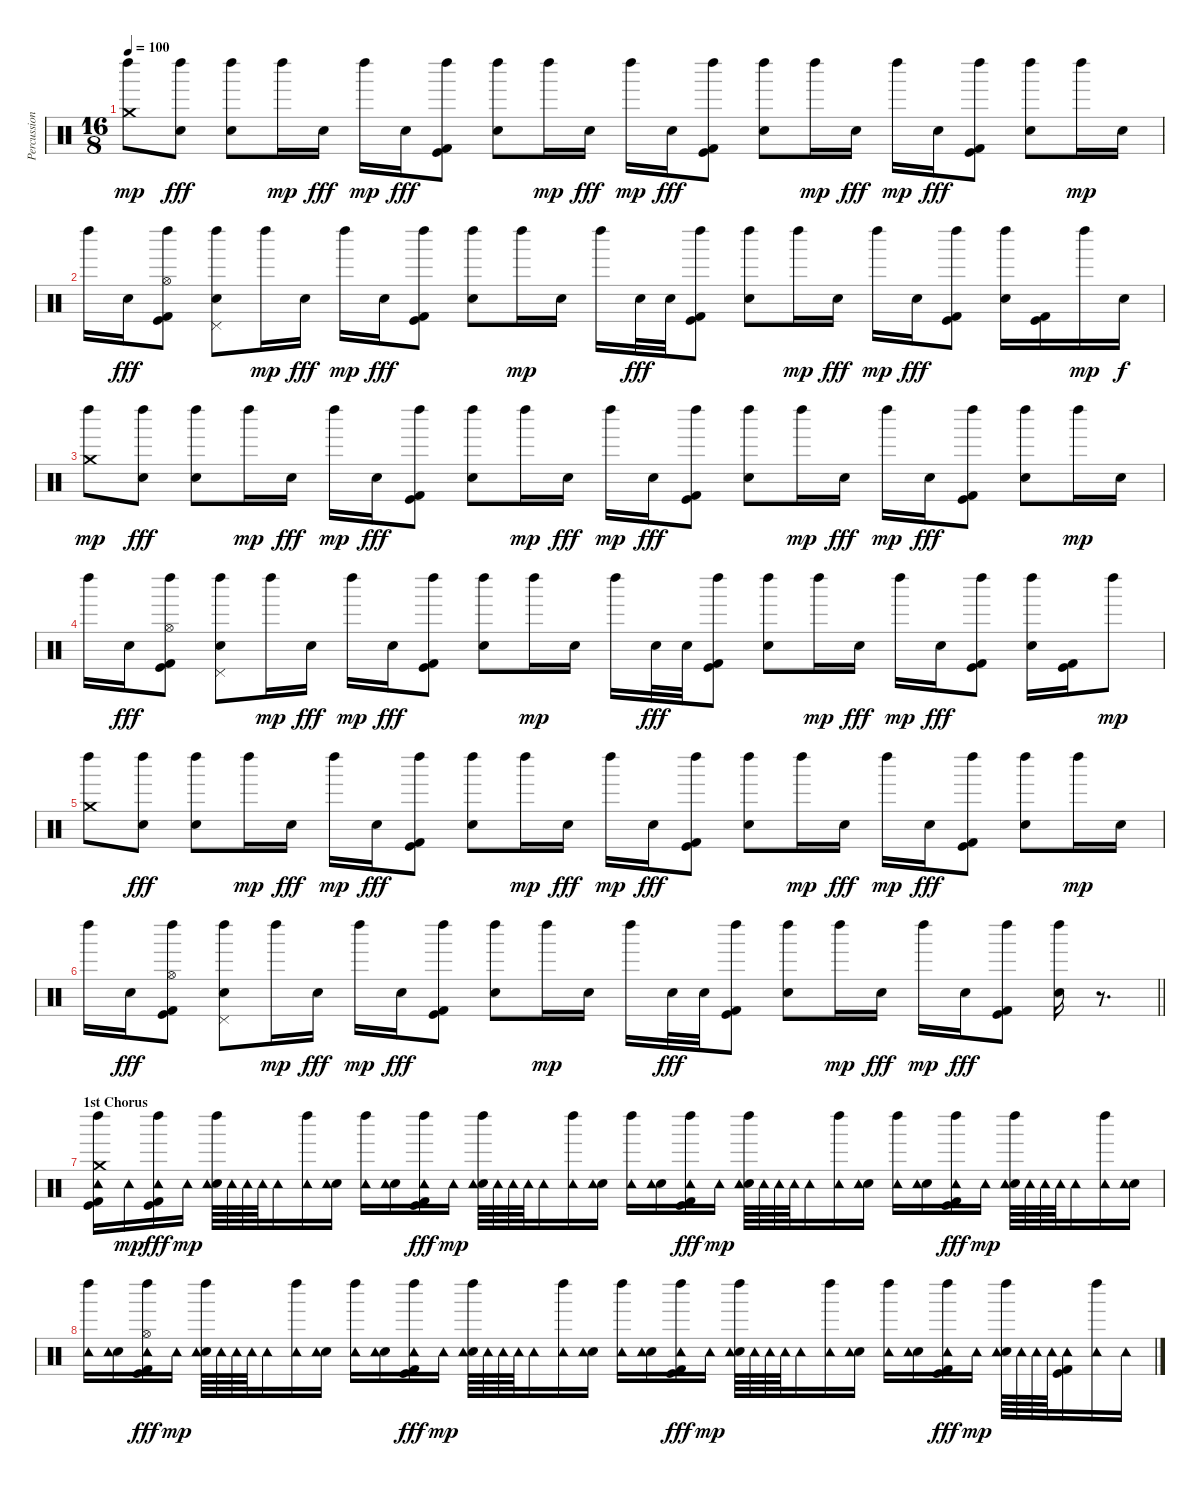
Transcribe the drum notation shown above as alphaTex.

\track ("Percussion" "Percussion") {instrument percussion}
\staff {score}
\articulation defaults
\ts (16 8)
\tempo 100
\clef neutral
\ks c
("Crash medium (hit)" "Left Maraca (hit)").8{dy mp} ("Left Maraca (hit)" "Snare (hit) 2").8{dy fff} ("Left Maraca (hit)" "Snare (hit) 2").8 "Left Maraca (hit)".16{dy mp} "Snare (hit) 2".16{dy fff} "Left Maraca (hit)".16{dy mp} "Snare (hit) 2".16{dy fff} ("Left Maraca (hit)" "Kick (hit)" "Kick (hit) 2").8 ("Left Maraca (hit)" "Snare (hit) 2").8 "Left Maraca (hit)".16{dy mp} "Snare (hit) 2".16{dy fff} "Left Maraca (hit)".16{dy mp} "Snare (hit) 2".16{dy fff} ("Left Maraca (hit)" "Kick (hit)" "Kick (hit) 2").8 ("Left Maraca (hit)" "Snare (hit) 2").8 "Left Maraca (hit)".16{dy mp} "Snare (hit) 2".16{dy fff} "Left Maraca (hit)".16{dy mp} "Snare (hit) 2".16{dy fff} ("Left Maraca (hit)" "Kick (hit)" "Kick (hit) 2").8 ("Left Maraca (hit)" "Snare (hit) 2").8 "Left Maraca (hit)".16{dy mp} "Snare (hit) 2".16 |
"Left Maraca (hit)".16 "Snare (hit) 2".16{dy fff} ("Hi-Hat (open)" "Left Maraca (hit)" "Kick (hit)" "Kick (hit) 2").8 ("Pedal Hi-Hat (hit)" "Left Maraca (hit)" "Snare (hit) 2").8 "Left Maraca (hit)".16{dy mp} "Snare (hit) 2".16{dy fff} "Left Maraca (hit)".16{dy mp} "Snare (hit) 2".16{dy fff} ("Left Maraca (hit)" "Kick (hit)" "Kick (hit) 2").8 ("Left Maraca (hit)" "Snare (hit) 2").8 "Left Maraca (hit)".16{dy mp} "Snare (hit) 2".16 "Left Maraca (hit)".16 "Snare (hit) 2".32{dy fff} "Snare (hit) 2".32 ("Left Maraca (hit)" "Kick (hit)" "Kick (hit) 2").8 ("Left Maraca (hit)" "Snare (hit) 2").8 "Left Maraca (hit)".16{dy mp} "Snare (hit) 2".16{dy fff} "Left Maraca (hit)".16{dy mp} "Snare (hit) 2".16{dy fff} ("Left Maraca (hit)" "Kick (hit)" "Kick (hit) 2").8 ("Left Maraca (hit)" "Snare (hit) 2").16 ("Kick (hit)" "Kick (hit) 2").16 "Left Maraca (hit)".16{dy mp} "Snare (hit) 2".16{dy f} |
("Crash medium (hit)" "Left Maraca (hit)").8{dy mp} ("Left Maraca (hit)" "Snare (hit) 2").8{dy fff} ("Left Maraca (hit)" "Snare (hit) 2").8 "Left Maraca (hit)".16{dy mp} "Snare (hit) 2".16{dy fff} "Left Maraca (hit)".16{dy mp} "Snare (hit) 2".16{dy fff} ("Left Maraca (hit)" "Kick (hit)" "Kick (hit) 2").8 ("Left Maraca (hit)" "Snare (hit) 2").8 "Left Maraca (hit)".16{dy mp} "Snare (hit) 2".16{dy fff} "Left Maraca (hit)".16{dy mp} "Snare (hit) 2".16{dy fff} ("Left Maraca (hit)" "Kick (hit)" "Kick (hit) 2").8 ("Left Maraca (hit)" "Snare (hit) 2").8 "Left Maraca (hit)".16{dy mp} "Snare (hit) 2".16{dy fff} "Left Maraca (hit)".16{dy mp} "Snare (hit) 2".16{dy fff} ("Left Maraca (hit)" "Kick (hit)" "Kick (hit) 2").8 ("Left Maraca (hit)" "Snare (hit) 2").8 "Left Maraca (hit)".16{dy mp} "Snare (hit) 2".16 |
"Left Maraca (hit)".16 "Snare (hit) 2".16{dy fff} ("Hi-Hat (open)" "Left Maraca (hit)" "Kick (hit)" "Kick (hit) 2").8 ("Pedal Hi-Hat (hit)" "Left Maraca (hit)" "Snare (hit) 2").8 "Left Maraca (hit)".16{dy mp} "Snare (hit) 2".16{dy fff} "Left Maraca (hit)".16{dy mp} "Snare (hit) 2".16{dy fff} ("Left Maraca (hit)" "Kick (hit)" "Kick (hit) 2").8 ("Left Maraca (hit)" "Snare (hit) 2").8 "Left Maraca (hit)".16{dy mp} "Snare (hit) 2".16 "Left Maraca (hit)".16 "Snare (hit) 2".32{dy fff} "Snare (hit) 2".32 ("Left Maraca (hit)" "Kick (hit)" "Kick (hit) 2").8 ("Left Maraca (hit)" "Snare (hit) 2").8 "Left Maraca (hit)".16{dy mp} "Snare (hit) 2".16{dy fff} "Left Maraca (hit)".16{dy mp} "Snare (hit) 2".16{dy fff} ("Left Maraca (hit)" "Kick (hit)" "Kick (hit) 2").8 ("Left Maraca (hit)" "Snare (hit) 2").16 ("Kick (hit)" "Kick (hit) 2").16 "Left Maraca (hit)".8{dy mp} |
("Crash medium (hit)" "Left Maraca (hit)").8 ("Left Maraca (hit)" "Snare (hit) 2").8{dy fff} ("Left Maraca (hit)" "Snare (hit) 2").8 "Left Maraca (hit)".16{dy mp} "Snare (hit) 2".16{dy fff} "Left Maraca (hit)".16{dy mp} "Snare (hit) 2".16{dy fff} ("Left Maraca (hit)" "Kick (hit)" "Kick (hit) 2").8 ("Left Maraca (hit)" "Snare (hit) 2").8 "Left Maraca (hit)".16{dy mp} "Snare (hit) 2".16{dy fff} "Left Maraca (hit)".16{dy mp} "Snare (hit) 2".16{dy fff} ("Left Maraca (hit)" "Kick (hit)" "Kick (hit) 2").8 ("Left Maraca (hit)" "Snare (hit) 2").8 "Left Maraca (hit)".16{dy mp} "Snare (hit) 2".16{dy fff} "Left Maraca (hit)".16{dy mp} "Snare (hit) 2".16{dy fff} ("Left Maraca (hit)" "Kick (hit)" "Kick (hit) 2").8 ("Left Maraca (hit)" "Snare (hit) 2").8 "Left Maraca (hit)".16{dy mp} "Snare (hit) 2".16 |
\barLineRight lightlight "Left Maraca (hit)".16 "Snare (hit) 2".16{dy fff}
("Hi-Hat (open)" "Left Maraca (hit)" "Kick (hit)" "Kick (hit) 2").8 ("Pedal Hi-Hat (hit)" "Left Maraca (hit)" "Snare (hit) 2").8 "Left Maraca (hit)".16{dy mp} "Snare (hit) 2".16{dy fff} "Left Maraca (hit)".16{dy mp} "Snare (hit) 2".16{dy fff} ("Left Maraca (hit)" "Kick (hit)" "Kick (hit) 2").8 ("Left Maraca (hit)" "Snare (hit) 2").8 "Left Maraca (hit)".16{dy mp} "Snare (hit) 2".16 "Left Maraca (hit)".16 "Snare (hit) 2".32{dy fff} "Snare (hit) 2".32 ("Left Maraca (hit)" "Kick (hit)" "Kick (hit) 2").8 ("Left Maraca (hit)" "Snare (hit) 2").8 "Left Maraca (hit)".16{dy mp} "Snare (hit) 2".16{dy fff} "Left Maraca (hit)".16{dy mp} "Snare (hit) 2".16{dy fff} ("Left Maraca (hit)" "Kick (hit)" "Kick (hit) 2").8 ("Left Maraca (hit)" "Snare (hit) 2").16 r.8{d} |
\section ("" "1st Chorus")
("Crash medium (hit)" "Left Maraca (hit)" "Tambourine (hit)" "Kick (hit)" "Kick (hit) 2").16 "Tambourine (hit)".16{dy mp} ("Left Maraca (hit)" "Tambourine (hit)" "Kick (hit)" "Kick (hit) 2").16{dy fff} "Tambourine (hit)".16{dy mp} ("Left Maraca (hit)" "Snare (hit) 2" "Tambourine (hit)").64 "Tambourine (hit)".64 "Tambourine (hit)".64 "Tambourine (hit)".64 "Tambourine (hit)".16 ("Left Maraca (hit)" "Tambourine (hit)").16 ("Snare (hit) 2" "Tambourine (hit)").16 ("Left Maraca (hit)" "Tambourine (hit)").16 ("Snare (hit) 2" "Tambourine (hit)").16 ("Left Maraca (hit)" "Tambourine (hit)" "Kick (hit)" "Kick (hit) 2").16{dy fff} "Tambourine (hit)".16{dy mp} ("Left Maraca (hit)" "Snare (hit) 2" "Tambourine (hit)").64 "Tambourine (hit)".64 "Tambourine (hit)".64 "Tambourine (hit)".64 "Tambourine (hit)".16 ("Left Maraca (hit)" "Tambourine (hit)").16 ("Snare (hit) 2" "Tambourine (hit)").16 ("Left Maraca (hit)" "Tambourine (hit)").16 ("Snare (hit) 2" "Tambourine (hit)").16 ("Left Maraca (hit)" "Tambourine (hit)" "Kick (hit)" "Kick (hit) 2").16{dy fff} "Tambourine (hit)".16{dy mp} ("Left Maraca (hit)" "Snare (hit) 2" "Tambourine (hit)").64 "Tambourine (hit)".64 "Tambourine (hit)".64 "Tambourine (hit)".64 "Tambourine (hit)".16 ("Left Maraca (hit)" "Tambourine (hit)").16 ("Snare (hit) 2" "Tambourine (hit)").16 ("Left Maraca (hit)" "Tambourine (hit)").16 ("Snare (hit) 2" "Tambourine (hit)").16 ("Left Maraca (hit)" "Tambourine (hit)" "Kick (hit)" "Kick (hit) 2").16{dy fff} "Tambourine (hit)".16{dy mp} ("Left Maraca (hit)" "Snare (hit) 2" "Tambourine (hit)").64 "Tambourine (hit)".64 "Tambourine (hit)".64 "Tambourine (hit)".64 "Tambourine (hit)".16 ("Left Maraca (hit)" "Tambourine (hit)").16 ("Snare (hit) 2" "Tambourine (hit)").16 |
("Left Maraca (hit)" "Tambourine (hit)").16 ("Snare (hit) 2" "Tambourine (hit)").16 ("Hi-Hat (open)" "Left Maraca (hit)" "Tambourine (hit)" "Kick (hit)" "Kick (hit) 2").16{dy fff} "Tambourine (hit)".16{dy mp} ("Left Maraca (hit)" "Snare (hit) 2" "Tambourine (hit)").64 "Tambourine (hit)".64 "Tambourine (hit)".64 "Tambourine (hit)".64 "Tambourine (hit)".16 ("Left Maraca (hit)" "Tambourine (hit)").16 ("Snare (hit) 2" "Tambourine (hit)").16 ("Left Maraca (hit)" "Tambourine (hit)").16 ("Snare (hit) 2" "Tambourine (hit)").16 ("Left Maraca (hit)" "Tambourine (hit)" "Kick (hit)" "Kick (hit) 2").16{dy fff} "Tambourine (hit)".16{dy mp} ("Left Maraca (hit)" "Snare (hit) 2" "Tambourine (hit)").64 "Tambourine (hit)".64 "Tambourine (hit)".64 "Tambourine (hit)".64 "Tambourine (hit)".16 ("Left Maraca (hit)" "Tambourine (hit)").16 ("Snare (hit) 2" "Tambourine (hit)").16 ("Left Maraca (hit)" "Tambourine (hit)").16 ("Snare (hit) 2" "Tambourine (hit)").16 ("Left Maraca (hit)" "Tambourine (hit)" "Kick (hit)" "Kick (hit) 2").16{dy fff} "Tambourine (hit)".16{dy mp} ("Left Maraca (hit)" "Snare (hit) 2" "Tambourine (hit)").64 "Tambourine (hit)".64 "Tambourine (hit)".64 "Tambourine (hit)".64 "Tambourine (hit)".16 ("Left Maraca (hit)" "Tambourine (hit)").16 ("Snare (hit) 2" "Tambourine (hit)").16 ("Left Maraca (hit)" "Tambourine (hit)").16 ("Snare (hit) 2" "Tambourine (hit)").16 ("Left Maraca (hit)" "Tambourine (hit)" "Kick (hit)" "Kick (hit) 2").16{dy fff} "Tambourine (hit)".16{dy mp} ("Left Maraca (hit)" "Snare (hit) 2" "Tambourine (hit)").64 "Tambourine (hit)".64 "Tambourine (hit)".64 "Tambourine (hit)".64 ("Tambourine (hit)" "Kick (hit)" "Kick (hit) 2").16 ("Left Maraca (hit)" "Tambourine (hit)").16 "Tambourine (hit)".16
